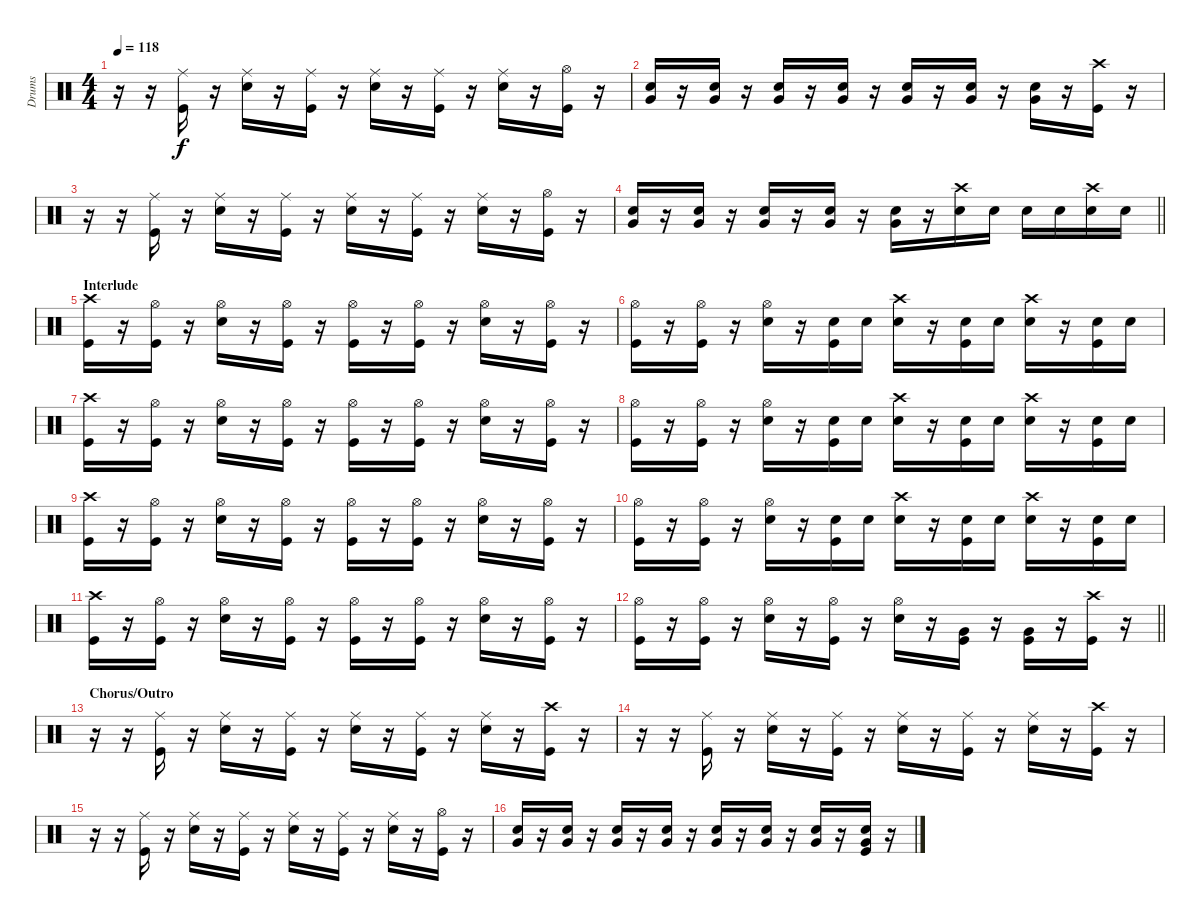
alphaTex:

\track ("Drums" "Drums") {instrument percussion}
\staff {score}
\articulation defaults
\ts (4 4)
\tempo 118
\clef neutral
\ks c
r.16{dy f} r.16 ("Ride (middle)" "Kick (hit)").16 r.16 ("Ride (middle)" "Snare (hit) 2").16 r.16 ("Ride (middle)" "Kick (hit)").16 r.16 ("Ride (middle)" "Snare (hit) 2").16 r.16 ("Ride (middle)" "Kick (hit)").16 r.16 ("Ride (middle)" "Snare (hit) 2").16 r.16 ("Hi-Hat (open)" "Kick (hit)").16 r.16 |
("Very Low Tom (hit)" "Snare (hit) 2").16 r.16 ("Very Low Tom (hit)" "Snare (hit) 2").16 r.16 ("Very Low Tom (hit)" "Snare (hit) 2").16 r.16 ("Very Low Tom (hit)" "Snare (hit) 2").16 r.16 ("Very Low Tom (hit)" "Snare (hit) 2").16 r.16 ("Very Low Tom (hit)" "Snare (hit) 2").16 r.16 ("Very Low Tom (hit)" "Snare (hit) 2").16 r.16 ("Crash high (hit)" "Kick (hit)").16 r.16 |
r.16 r.16 ("Ride (middle)" "Kick (hit)").16 r.16 ("Ride (middle)" "Snare (hit) 2").16 r.16 ("Ride (middle)" "Kick (hit)").16 r.16 ("Ride (middle)" "Snare (hit) 2").16 r.16 ("Ride (middle)" "Kick (hit)").16 r.16 ("Ride (middle)" "Snare (hit) 2").16 r.16 ("Hi-Hat (open)" "Kick (hit)").16 r.16 |
\barLineRight lightlight
("Very Low Tom (hit)" "Snare (hit) 2").16 r.16 ("Very Low Tom (hit)" "Snare (hit) 2").16 r.16 ("Very Low Tom (hit)" "Snare (hit) 2").16 r.16 ("Very Low Tom (hit)" "Snare (hit) 2").16 r.16 ("Very Low Tom (hit)" "Snare (hit) 2").16 r.16 ("Crash high (hit)" "Snare (hit) 2").16 "Snare (hit) 2".16 "Snare (hit) 2".16 "Snare (hit) 2".16 ("Crash high (hit)" "Snare (hit) 2").16 "Snare (hit) 2".16 |
\section ("" "Interlude")
("Crash high (hit)" "Kick (hit)").16 r.16 ("Hi-Hat (open)" "Kick (hit)").16 r.16 ("Hi-Hat (open)" "Snare (hit) 2").16 r.16 ("Hi-Hat (open)" "Kick (hit)").16 r.16 ("Hi-Hat (open)" "Kick (hit)").16 r.16 ("Hi-Hat (open)" "Kick (hit)").16 r.16 ("Hi-Hat (open)" "Snare (hit) 2").16 r.16 ("Hi-Hat (open)" "Kick (hit)").16 r.16 |
("Hi-Hat (open)" "Kick (hit)").16 r.16 ("Hi-Hat (open)" "Kick (hit)").16 r.16 ("Hi-Hat (open)" "Snare (hit) 2").16 r.16 ("Snare (hit) 2" "Kick (hit)").16 "Snare (hit) 2".16 ("Crash high (hit)" "Snare (hit) 2").16 r.16 ("Snare (hit) 2" "Kick (hit)").16 "Snare (hit) 2".16 ("Crash high (hit)" "Snare (hit) 2").16 r.16 ("Snare (hit) 2" "Kick (hit)").16 "Snare (hit) 2".16 |
("Crash high (hit)" "Kick (hit)").16 r.16 ("Hi-Hat (open)" "Kick (hit)").16 r.16 ("Hi-Hat (open)" "Snare (hit) 2").16 r.16 ("Hi-Hat (open)" "Kick (hit)").16 r.16 ("Hi-Hat (open)" "Kick (hit)").16 r.16 ("Hi-Hat (open)" "Kick (hit)").16 r.16 ("Hi-Hat (open)" "Snare (hit) 2").16 r.16 ("Hi-Hat (open)" "Kick (hit)").16 r.16 |
("Hi-Hat (open)" "Kick (hit)").16 r.16 ("Hi-Hat (open)" "Kick (hit)").16 r.16 ("Hi-Hat (open)" "Snare (hit) 2").16 r.16 ("Snare (hit) 2" "Kick (hit)").16 "Snare (hit) 2".16 ("Crash high (hit)" "Snare (hit) 2").16 r.16 ("Snare (hit) 2" "Kick (hit)").16 "Snare (hit) 2".16 ("Crash high (hit)" "Snare (hit) 2").16 r.16 ("Snare (hit) 2" "Kick (hit)").16 "Snare (hit) 2".16 |
("Crash high (hit)" "Kick (hit)").16 r.16 ("Hi-Hat (open)" "Kick (hit)").16 r.16 ("Hi-Hat (open)" "Snare (hit) 2").16 r.16 ("Hi-Hat (open)" "Kick (hit)").16 r.16 ("Hi-Hat (open)" "Kick (hit)").16 r.16 ("Hi-Hat (open)" "Kick (hit)").16 r.16 ("Hi-Hat (open)" "Snare (hit) 2").16 r.16 ("Hi-Hat (open)" "Kick (hit)").16 r.16 |
("Hi-Hat (open)" "Kick (hit)").16 r.16 ("Hi-Hat (open)" "Kick (hit)").16 r.16 ("Hi-Hat (open)" "Snare (hit) 2").16 r.16 ("Snare (hit) 2" "Kick (hit)").16 "Snare (hit) 2".16 ("Crash high (hit)" "Snare (hit) 2").16 r.16 ("Snare (hit) 2" "Kick (hit)").16 "Snare (hit) 2".16 ("Crash high (hit)" "Snare (hit) 2").16 r.16 ("Snare (hit) 2" "Kick (hit)").16 "Snare (hit) 2".16 |
("Crash high (hit)" "Kick (hit)").16 r.16 ("Hi-Hat (open)" "Kick (hit)").16 r.16 ("Hi-Hat (open)" "Snare (hit) 2").16 r.16 ("Hi-Hat (open)" "Kick (hit)").16 r.16 ("Hi-Hat (open)" "Kick (hit)").16 r.16 ("Hi-Hat (open)" "Kick (hit)").16 r.16 ("Hi-Hat (open)" "Snare (hit) 2").16 r.16 ("Hi-Hat (open)" "Kick (hit)").16 r.16 |
\barLineRight lightlight
("Hi-Hat (open)" "Kick (hit)").16 r.16 ("Hi-Hat (open)" "Kick (hit)").16 r.16 ("Hi-Hat (open)" "Snare (hit) 2").16 r.16 ("Hi-Hat (open)" "Kick (hit)").16 r.16 ("Hi-Hat (open)" "Snare (hit) 2").16 r.16 ("Very Low Tom (hit)" "Kick (hit)").16 r.16 ("Very Low Tom (hit)" "Kick (hit)").16 r.16 ("Crash high (hit)" "Kick (hit)").16 r.16 |
\section ("" "Chorus/Outro")
r.16 r.16 ("Ride (middle)" "Kick (hit)").16 r.16 ("Ride (middle)" "Snare (hit) 2").16 r.16 ("Ride (middle)" "Kick (hit)").16 r.16 ("Ride (middle)" "Snare (hit) 2").16 r.16 ("Ride (middle)" "Kick (hit)").16 r.16 ("Ride (middle)" "Snare (hit) 2").16 r.16 ("Crash high (hit)" "Kick (hit)").16 r.16 |
r.16 r.16 ("Ride (middle)" "Kick (hit)").16 r.16 ("Ride (middle)" "Snare (hit) 2").16 r.16 ("Ride (middle)" "Kick (hit)").16 r.16 ("Ride (middle)" "Snare (hit) 2").16 r.16 ("Ride (middle)" "Kick (hit)").16 r.16 ("Ride (middle)" "Snare (hit) 2").16 r.16 ("Crash high (hit)" "Kick (hit)").16 r.16 |
r.16 r.16 ("Ride (middle)" "Kick (hit)").16 r.16 ("Ride (middle)" "Snare (hit) 2").16 r.16 ("Ride (middle)" "Kick (hit)").16 r.16 ("Ride (middle)" "Snare (hit) 2").16 r.16 ("Ride (middle)" "Kick (hit)").16 r.16 ("Ride (middle)" "Snare (hit) 2").16 r.16 ("Hi-Hat (open)" "Kick (hit)").16 r.16 |
("Very Low Tom (hit)" "Snare (hit) 2").16 r.16 ("Very Low Tom (hit)" "Snare (hit) 2").16 r.16 ("Very Low Tom (hit)" "Snare (hit) 2").16 r.16 ("Very Low Tom (hit)" "Snare (hit) 2").16 r.16 ("Very Low Tom (hit)" "Snare (hit) 2").16 r.16 ("Very Low Tom (hit)" "Snare (hit) 2").16 r.16 ("Very Low Tom (hit)" "Snare (hit) 2").16 r.16 ("Very Low Tom (hit)" "Snare (hit) 2" "Kick (hit)").16 r.16
